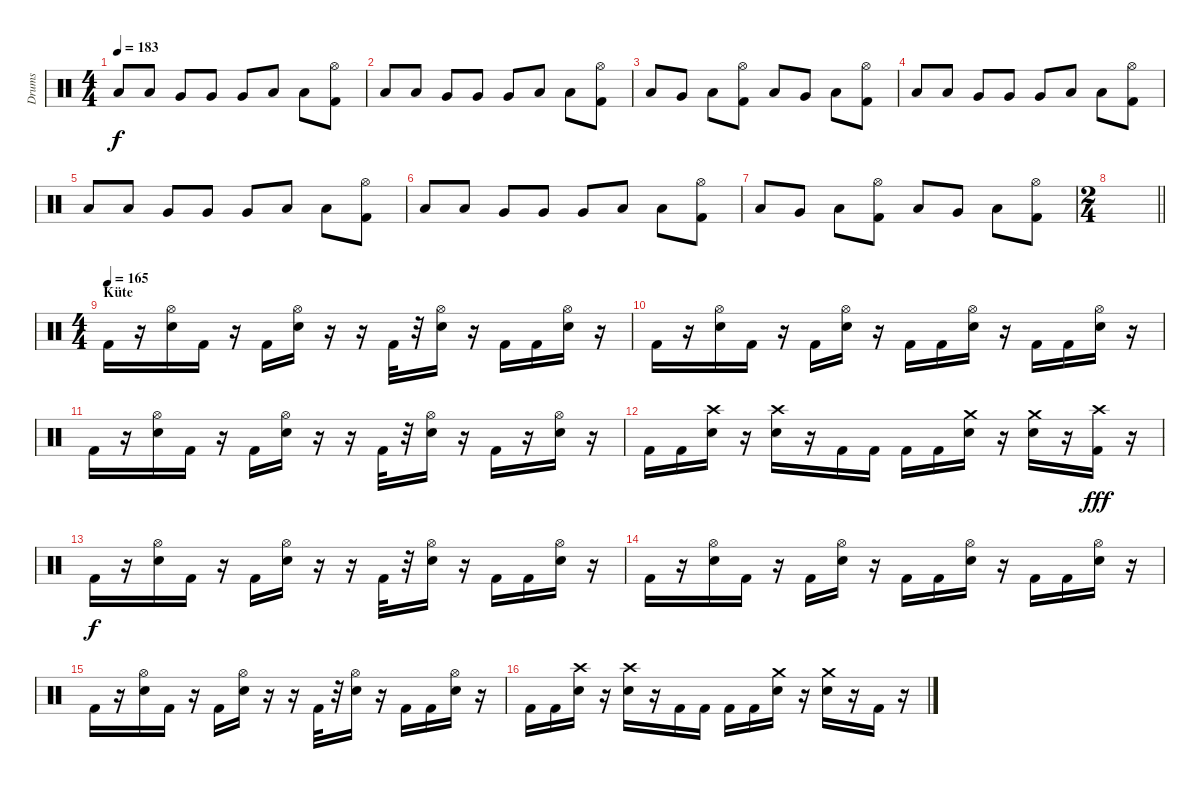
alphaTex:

\track ("Drums" "Drums") {instrument percussion}
\staff {score}
\articulation defaults
\ts (4 4)
\tempo 183
\clef neutral
\ks c "Low Tom (hit)".8{dy f} "Low Tom (hit)".8 "Very Low Tom (hit)".8 "Very Low Tom (hit)".8 "Very Low Tom (hit)".8 "Low Floor Tom (hit)".8 "Low Floor Tom (hit)".8
("Hi-Hat (open)" "Kick (hit) 2").8 |
"Low Tom (hit)".8 "Low Tom (hit)".8 "Very Low Tom (hit)".8 "Very Low Tom (hit)".8 "Very Low Tom (hit)".8 "Low Floor Tom (hit)".8 "Low Floor Tom (hit)".8 ("Hi-Hat (open)" "Kick (hit) 2").8 |
"Low Tom (hit)".8 "Very Low Tom (hit)".8 "Low Floor Tom (hit)".8 ("Hi-Hat (open)" "Kick (hit) 2").8 "Low Tom (hit)".8 "Very Low Tom (hit)".8 "Low Floor Tom (hit)".8 ("Hi-Hat (open)" "Kick (hit) 2").8 |
"Low Tom (hit)".8 "Low Tom (hit)".8 "Very Low Tom (hit)".8 "Very Low Tom (hit)".8 "Very Low Tom (hit)".8 "Low Floor Tom (hit)".8 "Low Floor Tom (hit)".8 ("Hi-Hat (open)" "Kick (hit) 2").8 |
"Low Tom (hit)".8 "Low Tom (hit)".8 "Very Low Tom (hit)".8 "Very Low Tom (hit)".8 "Very Low Tom (hit)".8 "Low Floor Tom (hit)".8 "Low Floor Tom (hit)".8 ("Hi-Hat (open)" "Kick (hit) 2").8 |
"Low Tom (hit)".8 "Low Tom (hit)".8 "Very Low Tom (hit)".8 "Very Low Tom (hit)".8 "Very Low Tom (hit)".8 "Low Floor Tom (hit)".8 "Low Floor Tom (hit)".8 ("Hi-Hat (open)" "Kick (hit) 2").8 |
"Low Tom (hit)".8 "Very Low Tom (hit)".8 "Low Floor Tom (hit)".8 ("Hi-Hat (open)" "Kick (hit) 2").8 "Low Tom (hit)".8 "Very Low Tom (hit)".8 "Low Floor Tom (hit)".8 ("Hi-Hat (open)" "Kick (hit) 2").8 |
\ts (2 4)
\barLineRight lightlight
|
\ts (4 4)
\section ("" "Küte")
\tempo (165)
"Kick (hit) 2".16{volume 13} r.16 ("Hi-Hat (open)" "Electric Snare (hit)").16 "Kick (hit) 2".16 r.16 "Kick (hit) 2".16 ("Hi-Hat (open)" "Electric Snare (hit)").16 r.16 r.16 "Kick (hit) 2".32 r.32 ("Hi-Hat (open)" "Electric Snare (hit)").16 r.16 "Kick (hit) 2".16 "Kick (hit) 2".16 ("Hi-Hat (open)" "Electric Snare (hit)").16 r.16 |
"Kick (hit) 2".16 r.16 ("Hi-Hat (open)" "Electric Snare (hit)").16 "Kick (hit) 2".16 r.16 "Kick (hit) 2".16 ("Hi-Hat (open)" "Electric Snare (hit)").16 r.16 "Kick (hit) 2".16 "Kick (hit) 2".16 ("Hi-Hat (open)" "Electric Snare (hit)").16 r.16 "Kick (hit) 2".16 "Kick (hit) 2".16 ("Hi-Hat (open)" "Electric Snare (hit)").16 r.16 |
"Kick (hit) 2".16 r.16 ("Hi-Hat (open)" "Electric Snare (hit)").16 "Kick (hit) 2".16 r.16 "Kick (hit) 2".16 ("Hi-Hat (open)" "Electric Snare (hit)").16 r.16 r.16 "Kick (hit) 2".32 r.32 ("Hi-Hat (open)" "Electric Snare (hit)").16 r.16 "Kick (hit) 2".16 r.16 ("Hi-Hat (open)" "Electric Snare (hit)").16 r.16 |
"Kick (hit) 2".16 "Kick (hit) 2".16 ("Crash high (hit)" "Electric Snare (hit)").16 r.16 ("Crash high (hit)" "Electric Snare (hit)").16 r.16 "Kick (hit) 2".16 "Kick (hit) 2".16 "Kick (hit) 2".16 "Kick (hit) 2".16 ("Crash medium (hit)" "Electric Snare (hit)").16 r.16 ("Crash medium (hit)" "Electric Snare (hit)").16 r.16 ("Crash high (hit)" "Kick (hit) 2").16{dy fff} r.16 |
"Kick (hit) 2".16{dy f} r.16 ("Hi-Hat (open)" "Electric Snare (hit)").16 "Kick (hit) 2".16 r.16 "Kick (hit) 2".16 ("Hi-Hat (open)" "Electric Snare (hit)").16 r.16 r.16 "Kick (hit) 2".32 r.32 ("Hi-Hat (open)" "Electric Snare (hit)").16 r.16 "Kick (hit) 2".16 "Kick (hit) 2".16 ("Hi-Hat (open)" "Electric Snare (hit)").16 r.16 |
"Kick (hit) 2".16 r.16 ("Hi-Hat (open)" "Electric Snare (hit)").16 "Kick (hit) 2".16 r.16 "Kick (hit) 2".16 ("Hi-Hat (open)" "Electric Snare (hit)").16 r.16 "Kick (hit) 2".16 "Kick (hit) 2".16 ("Hi-Hat (open)" "Electric Snare (hit)").16 r.16 "Kick (hit) 2".16 "Kick (hit) 2".16 ("Hi-Hat (open)" "Electric Snare (hit)").16 r.16 |
"Kick (hit) 2".16 r.16 ("Hi-Hat (open)" "Electric Snare (hit)").16 "Kick (hit) 2".16 r.16 "Kick (hit) 2".16 ("Hi-Hat (open)" "Electric Snare (hit)").16 r.16 r.16 "Kick (hit) 2".32 r.32 ("Hi-Hat (open)" "Electric Snare (hit)").16 r.16 "Kick (hit) 2".16 "Kick (hit) 2".16 ("Hi-Hat (open)" "Electric Snare (hit)").16 r.16 |
"Kick (hit) 2".16 "Kick (hit) 2".16 ("Crash high (hit)" "Electric Snare (hit)").16 r.16 ("Crash high (hit)" "Electric Snare (hit)").16 r.16 "Kick (hit) 2".16 "Kick (hit) 2".16 "Kick (hit) 2".16 "Kick (hit) 2".16 ("Crash medium (hit)" "Electric Snare (hit)").16 r.16 ("Crash medium (hit)" "Electric Snare (hit)").16 r.16 "Kick (hit) 2".16 r.16
